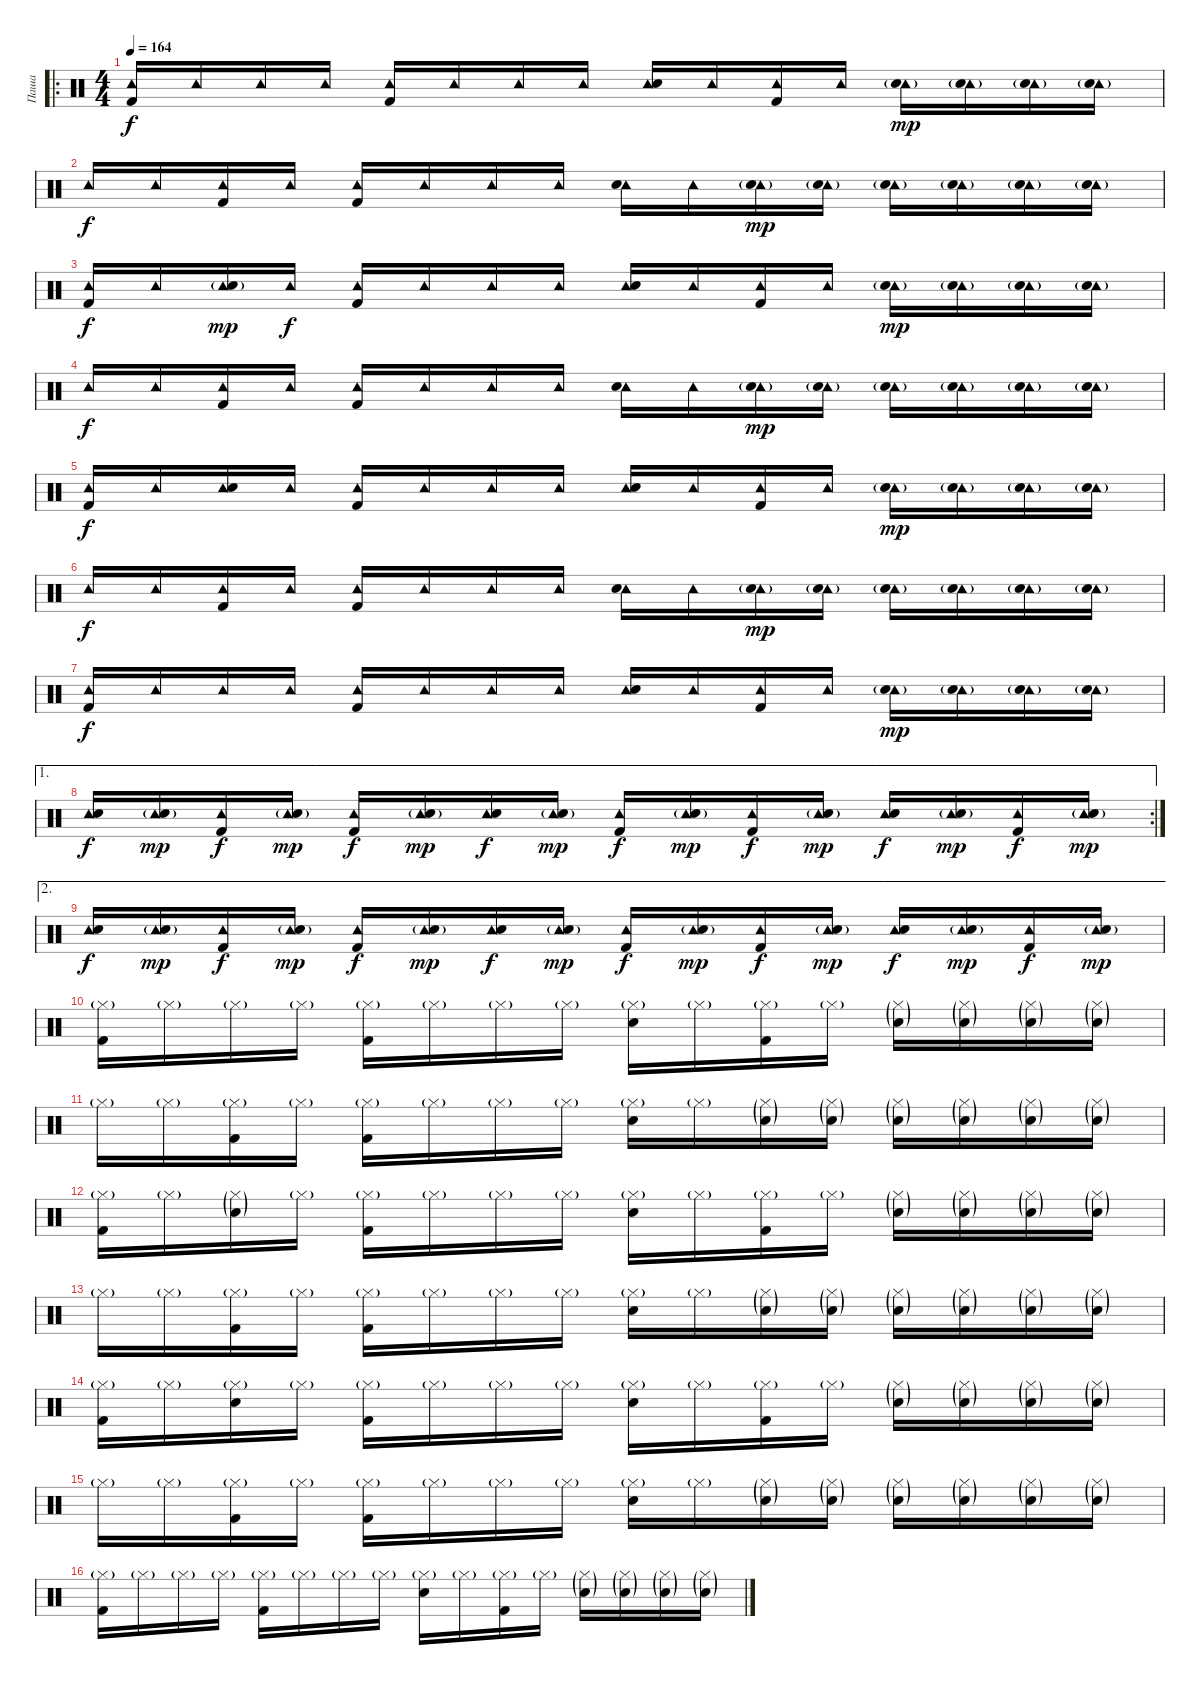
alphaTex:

\track ("Паша" "Паша") {instrument percussion}
\staff {score}
\articulation defaults
\ro
\ts (4 4)
\tempo 164
\clef neutral
\ks c
("Tambourine (hit)" "Kick (hit) 2").16{dy f} "Tambourine (hit)".16 "Tambourine (hit)".16 "Tambourine (hit)".16 ("Tambourine (hit)" "Kick (hit) 2").16 "Tambourine (hit)".16 "Tambourine (hit)".16 "Tambourine (hit)".16 ("Tambourine (hit)" "Electric Snare (hit)").16 "Tambourine (hit)".16 ("Tambourine (hit)" "Kick (hit) 2").16 "Tambourine (hit)".16 ("Tambourine (hit)" "Electric Snare (hit)"{g}).16{dy mp} ("Tambourine (hit)" "Electric Snare (hit)"{g}).16 ("Tambourine (hit)" "Electric Snare (hit)"{g}).16 ("Tambourine (hit)" "Electric Snare (hit)"{g}).16 |
"Tambourine (hit)".16{dy f} "Tambourine (hit)".16 ("Tambourine (hit)" "Kick (hit) 2").16 "Tambourine (hit)".16 ("Tambourine (hit)" "Kick (hit) 2").16 "Tambourine (hit)".16 "Tambourine (hit)".16 "Tambourine (hit)".16 ("Tambourine (hit)" "Electric Snare (hit)").16 "Tambourine (hit)".16 ("Tambourine (hit)" "Electric Snare (hit)"{g}).16{dy mp} ("Tambourine (hit)" "Electric Snare (hit)"{g}).16 ("Tambourine (hit)" "Electric Snare (hit)"{g}).16 ("Tambourine (hit)" "Electric Snare (hit)"{g}).16 ("Tambourine (hit)" "Electric Snare (hit)"{g}).16 ("Tambourine (hit)" "Electric Snare (hit)"{g}).16 |
("Tambourine (hit)" "Kick (hit) 2").16{dy f} "Tambourine (hit)".16 ("Tambourine (hit)" "Electric Snare (hit)"{g}).16{dy mp} "Tambourine (hit)".16{dy f} ("Tambourine (hit)" "Kick (hit) 2").16 "Tambourine (hit)".16 "Tambourine (hit)".16 "Tambourine (hit)".16 ("Tambourine (hit)" "Electric Snare (hit)").16 "Tambourine (hit)".16 ("Tambourine (hit)" "Kick (hit) 2").16 "Tambourine (hit)".16 ("Tambourine (hit)" "Electric Snare (hit)"{g}).16{dy mp} ("Tambourine (hit)" "Electric Snare (hit)"{g}).16 ("Tambourine (hit)" "Electric Snare (hit)"{g}).16 ("Tambourine (hit)" "Electric Snare (hit)"{g}).16 |
"Tambourine (hit)".16{dy f} "Tambourine (hit)".16 ("Tambourine (hit)" "Kick (hit) 2").16 "Tambourine (hit)".16 ("Tambourine (hit)" "Kick (hit) 2").16 "Tambourine (hit)".16 "Tambourine (hit)".16 "Tambourine (hit)".16 ("Tambourine (hit)" "Electric Snare (hit)").16 "Tambourine (hit)".16 ("Tambourine (hit)" "Electric Snare (hit)"{g}).16{dy mp} ("Tambourine (hit)" "Electric Snare (hit)"{g}).16 ("Tambourine (hit)" "Electric Snare (hit)"{g}).16 ("Tambourine (hit)" "Electric Snare (hit)"{g}).16 ("Tambourine (hit)" "Electric Snare (hit)"{g}).16 ("Tambourine (hit)" "Electric Snare (hit)"{g}).16 |
("Tambourine (hit)" "Kick (hit) 2").16{dy f} "Tambourine (hit)".16 ("Tambourine (hit)" "Electric Snare (hit)").16 "Tambourine (hit)".16 ("Tambourine (hit)" "Kick (hit) 2").16 "Tambourine (hit)".16 "Tambourine (hit)".16 "Tambourine (hit)".16 ("Tambourine (hit)" "Electric Snare (hit)").16 "Tambourine (hit)".16 ("Tambourine (hit)" "Kick (hit) 2").16 "Tambourine (hit)".16 ("Tambourine (hit)" "Electric Snare (hit)"{g}).16{dy mp} ("Tambourine (hit)" "Electric Snare (hit)"{g}).16 ("Tambourine (hit)" "Electric Snare (hit)"{g}).16 ("Tambourine (hit)" "Electric Snare (hit)"{g}).16 |
"Tambourine (hit)".16{dy f} "Tambourine (hit)".16 ("Tambourine (hit)" "Kick (hit) 2").16 "Tambourine (hit)".16 ("Tambourine (hit)" "Kick (hit) 2").16 "Tambourine (hit)".16 "Tambourine (hit)".16 "Tambourine (hit)".16 ("Tambourine (hit)" "Electric Snare (hit)").16 "Tambourine (hit)".16 ("Tambourine (hit)" "Electric Snare (hit)"{g}).16{dy mp} ("Tambourine (hit)" "Electric Snare (hit)"{g}).16 ("Tambourine (hit)" "Electric Snare (hit)"{g}).16 ("Tambourine (hit)" "Electric Snare (hit)"{g}).16 ("Tambourine (hit)" "Electric Snare (hit)"{g}).16 ("Tambourine (hit)" "Electric Snare (hit)"{g}).16 |
("Tambourine (hit)" "Kick (hit) 2").16{dy f} "Tambourine (hit)".16 "Tambourine (hit)".16 "Tambourine (hit)".16 ("Tambourine (hit)" "Kick (hit) 2").16 "Tambourine (hit)".16 "Tambourine (hit)".16 "Tambourine (hit)".16 ("Tambourine (hit)" "Electric Snare (hit)").16 "Tambourine (hit)".16 ("Tambourine (hit)" "Kick (hit) 2").16 "Tambourine (hit)".16 ("Tambourine (hit)" "Electric Snare (hit)"{g}).16{dy mp} ("Tambourine (hit)" "Electric Snare (hit)"{g}).16 ("Tambourine (hit)" "Electric Snare (hit)"{g}).16 ("Tambourine (hit)" "Electric Snare (hit)"{g}).16 |
\ae 1
\rc 2
("Tambourine (hit)" "Electric Snare (hit)").16{dy f} ("Tambourine (hit)" "Electric Snare (hit)"{g}).16{dy mp} ("Tambourine (hit)" "Kick (hit) 2").16{dy f} ("Tambourine (hit)" "Electric Snare (hit)"{g}).16{dy mp} ("Tambourine (hit)" "Kick (hit) 2").16{dy f} ("Tambourine (hit)" "Electric Snare (hit)"{g}).16{dy mp} ("Tambourine (hit)" "Electric Snare (hit)").16{dy f} ("Tambourine (hit)" "Electric Snare (hit)"{g}).16{dy mp} ("Tambourine (hit)" "Kick (hit) 2").16{dy f} ("Tambourine (hit)" "Electric Snare (hit)"{g}).16{dy mp} ("Tambourine (hit)" "Kick (hit) 2").16{dy f} ("Tambourine (hit)" "Electric Snare (hit)"{g}).16{dy mp} ("Tambourine (hit)" "Electric Snare (hit)").16{dy f} ("Tambourine (hit)" "Electric Snare (hit)"{g}).16{dy mp} ("Tambourine (hit)" "Kick (hit) 2").16{dy f} ("Tambourine (hit)" "Electric Snare (hit)"{g}).16{dy mp} |
\ae 2
("Tambourine (hit)" "Electric Snare (hit)").16{dy f} ("Tambourine (hit)" "Electric Snare (hit)"{g}).16{dy mp} ("Tambourine (hit)" "Kick (hit) 2").16{dy f} ("Tambourine (hit)" "Electric Snare (hit)"{g}).16{dy mp} ("Tambourine (hit)" "Kick (hit) 2").16{dy f} ("Tambourine (hit)" "Electric Snare (hit)"{g}).16{dy mp} ("Tambourine (hit)" "Electric Snare (hit)").16{dy f} ("Tambourine (hit)" "Electric Snare (hit)"{g}).16{dy mp} ("Tambourine (hit)" "Kick (hit) 2").16{dy f} ("Tambourine (hit)" "Electric Snare (hit)"{g}).16{dy mp} ("Tambourine (hit)" "Kick (hit) 2").16{dy f} ("Tambourine (hit)" "Electric Snare (hit)"{g}).16{dy mp} ("Tambourine (hit)" "Electric Snare (hit)").16{dy f} ("Tambourine (hit)" "Electric Snare (hit)"{g}).16{dy mp} ("Tambourine (hit)" "Kick (hit) 2").16{dy f} ("Tambourine (hit)" "Electric Snare (hit)"{g}).16{dy mp} |
("Hi-Hat (closed)"{g} "Kick (hit) 2").16 "Hi-Hat (closed)"{g}.16 "Hi-Hat (closed)"{g}.16 "Hi-Hat (closed)"{g}.16 ("Hi-Hat (closed)"{g} "Kick (hit) 2").16 "Hi-Hat (closed)"{g}.16 "Hi-Hat (closed)"{g}.16 "Hi-Hat (closed)"{g}.16 ("Hi-Hat (closed)"{g} "Electric Snare (hit)").16 "Hi-Hat (closed)"{g}.16 ("Hi-Hat (closed)"{g} "Kick (hit) 2").16 "Hi-Hat (closed)"{g}.16 ("Hi-Hat (closed)"{g} "Electric Snare (hit)"{g}).16 ("Hi-Hat (closed)"{g} "Electric Snare (hit)"{g}).16 ("Hi-Hat (closed)"{g} "Electric Snare (hit)"{g}).16 ("Hi-Hat (closed)"{g} "Electric Snare (hit)"{g}).16 |
"Hi-Hat (closed)"{g}.16 "Hi-Hat (closed)"{g}.16 ("Hi-Hat (closed)"{g} "Kick (hit) 2").16 "Hi-Hat (closed)"{g}.16 ("Hi-Hat (closed)"{g} "Kick (hit) 2").16 "Hi-Hat (closed)"{g}.16 "Hi-Hat (closed)"{g}.16 "Hi-Hat (closed)"{g}.16 ("Hi-Hat (closed)"{g} "Electric Snare (hit)").16 "Hi-Hat (closed)"{g}.16 ("Hi-Hat (closed)"{g} "Electric Snare (hit)"{g}).16 ("Hi-Hat (closed)"{g} "Electric Snare (hit)"{g}).16 ("Hi-Hat (closed)"{g} "Electric Snare (hit)"{g}).16 ("Hi-Hat (closed)"{g} "Electric Snare (hit)"{g}).16 ("Hi-Hat (closed)"{g} "Electric Snare (hit)"{g}).16 ("Hi-Hat (closed)"{g} "Electric Snare (hit)"{g}).16 |
("Hi-Hat (closed)"{g} "Kick (hit) 2").16 "Hi-Hat (closed)"{g}.16 ("Hi-Hat (closed)"{g} "Electric Snare (hit)"{g}).16 "Hi-Hat (closed)"{g}.16 ("Hi-Hat (closed)"{g} "Kick (hit) 2").16 "Hi-Hat (closed)"{g}.16 "Hi-Hat (closed)"{g}.16 "Hi-Hat (closed)"{g}.16 ("Hi-Hat (closed)"{g} "Electric Snare (hit)").16 "Hi-Hat (closed)"{g}.16 ("Hi-Hat (closed)"{g} "Kick (hit) 2").16 "Hi-Hat (closed)"{g}.16 ("Hi-Hat (closed)"{g} "Electric Snare (hit)"{g}).16 ("Hi-Hat (closed)"{g} "Electric Snare (hit)"{g}).16 ("Hi-Hat (closed)"{g} "Electric Snare (hit)"{g}).16 ("Hi-Hat (closed)"{g} "Electric Snare (hit)"{g}).16 |
"Hi-Hat (closed)"{g}.16 "Hi-Hat (closed)"{g}.16 ("Hi-Hat (closed)"{g} "Kick (hit) 2").16 "Hi-Hat (closed)"{g}.16 ("Hi-Hat (closed)"{g} "Kick (hit) 2").16 "Hi-Hat (closed)"{g}.16 "Hi-Hat (closed)"{g}.16 "Hi-Hat (closed)"{g}.16 ("Hi-Hat (closed)"{g} "Electric Snare (hit)").16 "Hi-Hat (closed)"{g}.16 ("Hi-Hat (closed)"{g} "Electric Snare (hit)"{g}).16 ("Hi-Hat (closed)"{g} "Electric Snare (hit)"{g}).16 ("Hi-Hat (closed)"{g} "Electric Snare (hit)"{g}).16 ("Hi-Hat (closed)"{g} "Electric Snare (hit)"{g}).16 ("Hi-Hat (closed)"{g} "Electric Snare (hit)"{g}).16 ("Hi-Hat (closed)"{g} "Electric Snare (hit)"{g}).16 |
("Hi-Hat (closed)"{g} "Kick (hit) 2").16 "Hi-Hat (closed)"{g}.16 ("Hi-Hat (closed)"{g} "Electric Snare (hit)").16 "Hi-Hat (closed)"{g}.16 ("Hi-Hat (closed)"{g} "Kick (hit) 2").16 "Hi-Hat (closed)"{g}.16 "Hi-Hat (closed)"{g}.16 "Hi-Hat (closed)"{g}.16 ("Hi-Hat (closed)"{g} "Electric Snare (hit)").16 "Hi-Hat (closed)"{g}.16 ("Hi-Hat (closed)"{g} "Kick (hit) 2").16 "Hi-Hat (closed)"{g}.16 ("Hi-Hat (closed)"{g} "Electric Snare (hit)"{g}).16 ("Hi-Hat (closed)"{g} "Electric Snare (hit)"{g}).16 ("Hi-Hat (closed)"{g} "Electric Snare (hit)"{g}).16 ("Hi-Hat (closed)"{g} "Electric Snare (hit)"{g}).16 |
"Hi-Hat (closed)"{g}.16 "Hi-Hat (closed)"{g}.16 ("Hi-Hat (closed)"{g} "Kick (hit) 2").16 "Hi-Hat (closed)"{g}.16 ("Hi-Hat (closed)"{g} "Kick (hit) 2").16 "Hi-Hat (closed)"{g}.16 "Hi-Hat (closed)"{g}.16 "Hi-Hat (closed)"{g}.16 ("Hi-Hat (closed)"{g} "Electric Snare (hit)").16 "Hi-Hat (closed)"{g}.16 ("Hi-Hat (closed)"{g} "Electric Snare (hit)"{g}).16 ("Hi-Hat (closed)"{g} "Electric Snare (hit)"{g}).16 ("Hi-Hat (closed)"{g} "Electric Snare (hit)"{g}).16 ("Hi-Hat (closed)"{g} "Electric Snare (hit)"{g}).16 ("Hi-Hat (closed)"{g} "Electric Snare (hit)"{g}).16 ("Hi-Hat (closed)"{g} "Electric Snare (hit)"{g}).16 |
("Hi-Hat (closed)"{g} "Kick (hit) 2").16 "Hi-Hat (closed)"{g}.16 "Hi-Hat (closed)"{g}.16 "Hi-Hat (closed)"{g}.16 ("Hi-Hat (closed)"{g} "Kick (hit) 2").16 "Hi-Hat (closed)"{g}.16 "Hi-Hat (closed)"{g}.16 "Hi-Hat (closed)"{g}.16 ("Hi-Hat (closed)"{g} "Electric Snare (hit)").16 "Hi-Hat (closed)"{g}.16 ("Hi-Hat (closed)"{g} "Kick (hit) 2").16 "Hi-Hat (closed)"{g}.16 ("Hi-Hat (closed)"{g} "Electric Snare (hit)"{g}).16 ("Hi-Hat (closed)"{g} "Electric Snare (hit)"{g}).16 ("Hi-Hat (closed)"{g} "Electric Snare (hit)"{g}).16 ("Hi-Hat (closed)"{g} "Electric Snare (hit)"{g}).16
